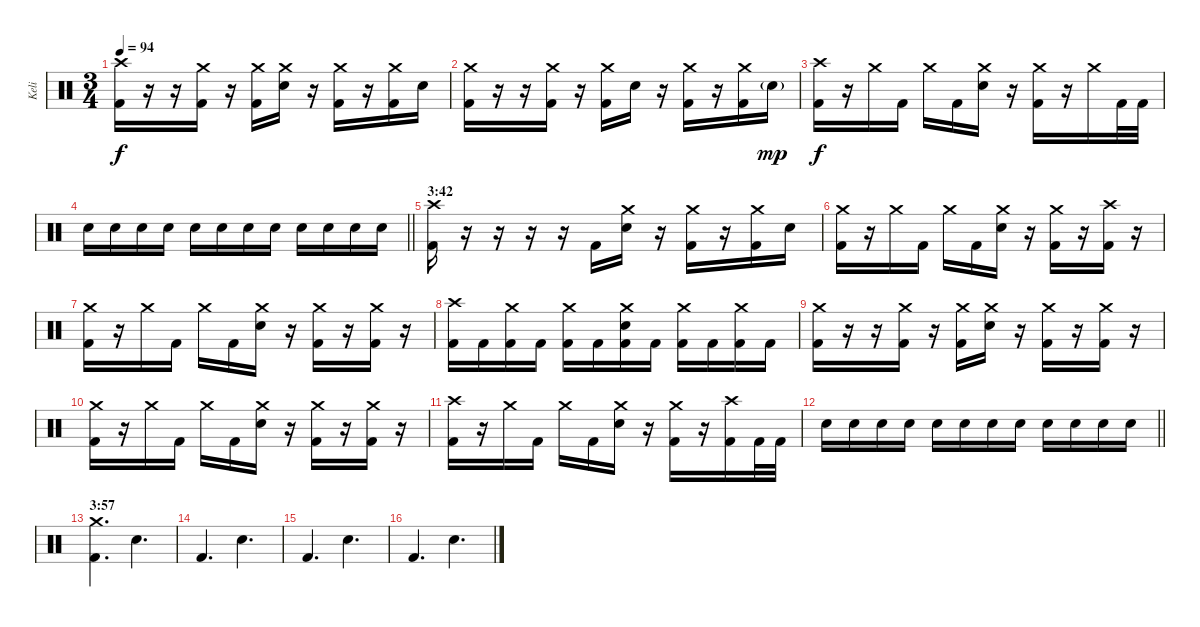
\track ("Keli" "Keli") {instrument percussion}
\staff {score}
\articulation defaults
\ts (3 4)
\tempo 94
\clef neutral
\ks c
("Crash high (hit)" "Kick (hit) 2").16{dy f} r.16 r.16 ("Crash medium (hit)" "Kick (hit) 2").16 r.16 ("Crash medium (hit)" "Kick (hit) 2").16 ("Crash medium (hit)" "Snare (hit) 2").16 r.16 ("Crash medium (hit)" "Kick (hit) 2").16 r.16 ("Crash medium (hit)" "Kick (hit) 2").16 "Snare (hit) 2".16 |
("Crash medium (hit)" "Kick (hit) 2").16 r.16 r.16 ("Crash medium (hit)" "Kick (hit) 2").16 r.16 ("Crash medium (hit)" "Kick (hit) 2").16 "Snare (hit) 2".16 r.16 ("Crash medium (hit)" "Kick (hit) 2").16 r.16 ("Crash medium (hit)" "Kick (hit) 2").16 "Snare (hit) 2"{g}.16{dy mp} |
("Crash high (hit)" "Kick (hit) 2").16{dy f} r.16 "Crash medium (hit)".16 "Kick (hit) 2".16 "Crash medium (hit)".16 "Kick (hit) 2".16 ("Crash medium (hit)" "Snare (hit) 2").16 r.16 ("Crash medium (hit)" "Kick (hit) 2").16 r.16 "Crash medium (hit)".16 "Kick (hit) 2".32 "Kick (hit) 2".32 |
\barLineRight lightlight "Snare (hit) 2".16 "Snare (hit) 2".16 "Snare (hit) 2".16 "Snare (hit) 2".16 "Snare (hit) 2".16 "Snare (hit) 2".16 "Snare (hit) 2".16 "Snare (hit) 2".16 "Snare (hit) 2".16 "Snare (hit) 2".16 "Snare (hit) 2".16 "Snare (hit) 2".16
|
\section ("" "3:42")
("Crash high (hit)" "Kick (hit) 2").16 r.16 r.16 r.16 r.16 "Kick (hit) 2".16 ("Crash medium (hit)" "Snare (hit) 2").16 r.16 ("Crash medium (hit)" "Kick (hit) 2").16 r.16 ("Crash medium (hit)" "Kick (hit) 2").16 "Snare (hit) 2".16 |
("Crash medium (hit)" "Kick (hit) 2").16 r.16 "Crash medium (hit)".16 "Kick (hit) 2".16 "Crash medium (hit)".16 "Kick (hit) 2".16 ("Crash medium (hit)" "Snare (hit) 2").16 r.16 ("Crash medium (hit)" "Kick (hit) 2").16 r.16 ("Crash high (hit)" "Kick (hit) 2").16 r.16 |
("Crash medium (hit)" "Kick (hit) 2").16 r.16 "Crash medium (hit)".16 "Kick (hit) 2".16 "Crash medium (hit)".16 "Kick (hit) 2".16 ("Crash medium (hit)" "Snare (hit) 2").16 r.16 ("Crash medium (hit)" "Kick (hit) 2").16 r.16 ("Crash medium (hit)" "Kick (hit) 2").16 r.16 |
("Crash high (hit)" "Kick (hit) 2").16 "Kick (hit) 2".16 ("Crash medium (hit)" "Kick (hit) 2").16 "Kick (hit) 2".16 ("Crash medium (hit)" "Kick (hit) 2").16 "Kick (hit) 2".16 ("Crash medium (hit)" "Snare (hit) 2" "Kick (hit) 2").16 "Kick (hit) 2".16 ("Crash medium (hit)" "Kick (hit) 2").16 "Kick (hit) 2".16 ("Crash medium (hit)" "Kick (hit) 2").16 "Kick (hit) 2".16 |
("Crash medium (hit)" "Kick (hit) 2").16 r.16 r.16 ("Crash medium (hit)" "Kick (hit) 2").16 r.16 ("Crash medium (hit)" "Kick (hit) 2").16 ("Crash medium (hit)" "Snare (hit) 2").16 r.16 ("Crash medium (hit)" "Kick (hit) 2").16 r.16 ("Crash medium (hit)" "Kick (hit) 2").16 r.16 |
("Crash medium (hit)" "Kick (hit) 2").16 r.16 "Crash medium (hit)".16 "Kick (hit) 2".16 "Crash medium (hit)".16 "Kick (hit) 2".16 ("Crash medium (hit)" "Snare (hit) 2").16 r.16 ("Crash medium (hit)" "Kick (hit) 2").16 r.16 ("Crash medium (hit)" "Kick (hit) 2").16 r.16 |
("Crash high (hit)" "Kick (hit) 2").16 r.16 "Crash medium (hit)".16 "Kick (hit) 2".16 "Crash medium (hit)".16 "Kick (hit) 2".16 ("Crash medium (hit)" "Snare (hit) 2").16 r.16 ("Crash medium (hit)" "Kick (hit) 2").16 r.16 ("Crash high (hit)" "Kick (hit) 2").16 "Kick (hit) 2".32 "Kick (hit) 2".32 |
\barLineRight lightlight "Snare (hit) 2".16 "Snare (hit) 2".16 "Snare (hit) 2".16 "Snare (hit) 2".16 "Snare (hit) 2".16 "Snare (hit) 2".16 "Snare (hit) 2".16 "Snare (hit) 2".16 "Snare (hit) 2".16 "Snare (hit) 2".16 "Snare (hit) 2".16 "Snare (hit) 2".16
|
\section ("" "3:57")
("Crash medium (hit)" "Kick (hit) 2").4{d} "Snare (hit) 2".4{d} |
"Kick (hit) 2".4{d} "Snare (hit) 2".4{d} |
"Kick (hit) 2".4{d} "Snare (hit) 2".4{d} |
"Kick (hit) 2".4{d} "Snare (hit) 2".4{d}
